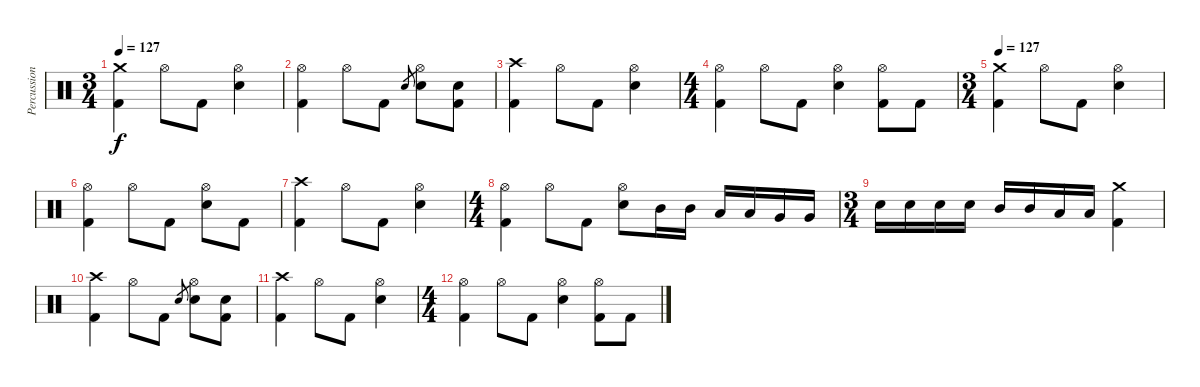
\track ("Percussion" "Percussion") {instrument percussion}
\staff {score}
\articulation defaults
\ts (3 4)
\tempo 127
\clef neutral
\ks c
("Crash medium (hit)" "Kick (hit) 2").4{dy f} "Hi-Hat (open)".8 "Kick (hit) 2".8 ("Hi-Hat (open)" "Electric Snare (hit)").4 |
("Hi-Hat (open)" "Kick (hit) 2").4 "Hi-Hat (open)".8 "Kick (hit) 2".8 "Electric Snare (hit)".8{gr} ("Hi-Hat (open)" "Electric Snare (hit)").8 ("Electric Snare (hit)" "Kick (hit) 2").8 |
("Crash high (hit)" "Kick (hit) 2").4 "Hi-Hat (open)".8 "Kick (hit) 2".8 ("Hi-Hat (open)" "Electric Snare (hit)").4 |
\ts (4 4)
("Hi-Hat (open)" "Kick (hit) 2").4 "Hi-Hat (open)".8 "Kick (hit) 2".8 ("Hi-Hat (open)" "Electric Snare (hit)").4 ("Hi-Hat (open)" "Kick (hit) 2").8 "Kick (hit) 2".8 |
\ts (3 4)
\tempo 127
("Crash medium (hit)" "Kick (hit) 2").4 "Hi-Hat (open)".8 "Kick (hit) 2".8 ("Hi-Hat (open)" "Electric Snare (hit)").4 |
("Hi-Hat (open)" "Kick (hit) 2").4 "Hi-Hat (open)".8 "Kick (hit) 2".8 ("Hi-Hat (open)" "Electric Snare (hit)").8 "Kick (hit) 2".8 |
("Crash high (hit)" "Kick (hit) 2").4 "Hi-Hat (open)".8 "Kick (hit) 2".8 ("Hi-Hat (open)" "Electric Snare (hit)").4 |
\ts (4 4)
("Hi-Hat (open)" "Kick (hit) 2").4 "Hi-Hat (open)".8 "Kick (hit) 2".8 ("Hi-Hat (open)" "Electric Snare (hit)").8 "Mid Tom (hit)".16 "Mid Tom (hit)".16 "Low Tom (hit)".16 "Low Tom (hit)".16 "Very Low Tom (hit)".16 "Very Low Tom (hit)".16 |
\ts (3 4)
"Electric Snare (hit)".16 "Electric Snare (hit)".16 "Electric Snare (hit)".16 "Electric Snare (hit)".16 "Mid Tom (hit)".16 "Mid Tom (hit)".16 "Low Tom (hit)".16 "Low Tom (hit)".16 ("Crash medium (hit)" "Kick (hit) 2").4 |
("Crash high (hit)" "Kick (hit) 2").4 "Hi-Hat (open)".8 "Kick (hit) 2".8 "Electric Snare (hit)".8{gr} ("Hi-Hat (open)" "Electric Snare (hit)").8 ("Electric Snare (hit)" "Kick (hit) 2").8 |
("Crash high (hit)" "Kick (hit) 2").4 "Hi-Hat (open)".8 "Kick (hit) 2".8 ("Hi-Hat (open)" "Electric Snare (hit)").4 |
\ts (4 4)
("Hi-Hat (open)" "Kick (hit) 2").4 "Hi-Hat (open)".8 "Kick (hit) 2".8 ("Hi-Hat (open)" "Electric Snare (hit)").4 ("Hi-Hat (open)" "Kick (hit) 2").8 "Kick (hit) 2".8
